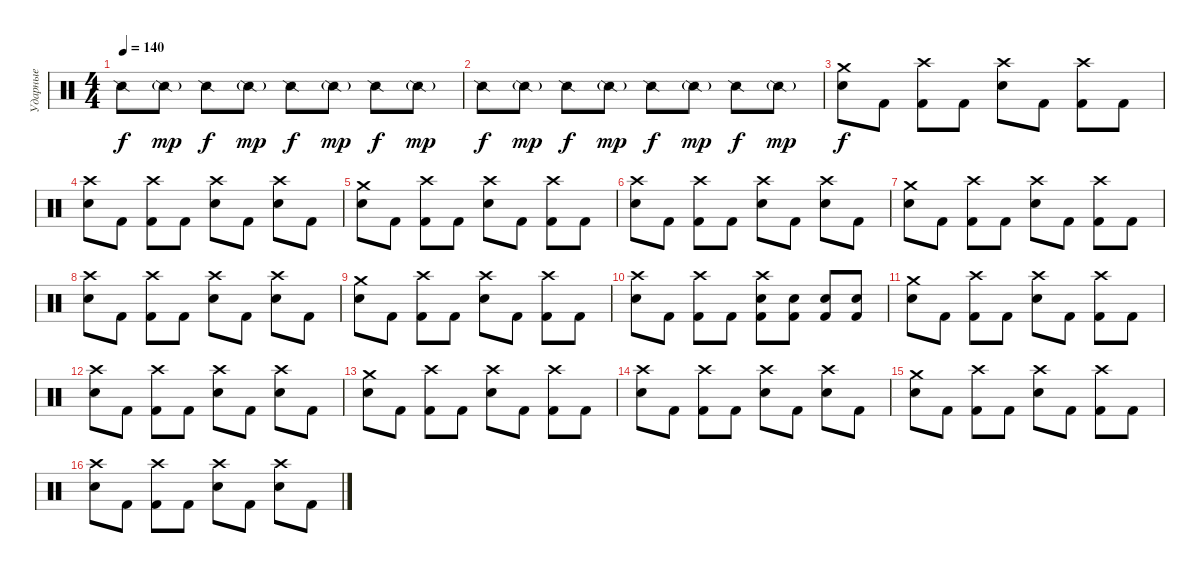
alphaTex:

\track ("Ударные" "Ударные") {instrument percussion}
\staff {score}
\articulation defaults
\ts (4 4)
\tempo 140
\clef neutral
\ks c "Snare (side stick) 2".8{dy f} "Snare (side stick) 2"{g}.8{dy mp} "Snare (side stick) 2".8{dy f} "Snare (side stick) 2"{g}.8{dy mp} "Snare (side stick) 2".8{dy f} "Snare (side stick) 2"{g}.8{dy mp} "Snare (side stick) 2".8{dy f} "Snare (side stick) 2"{g}.8{dy mp}
|
"Snare (side stick) 2".8{dy f} "Snare (side stick) 2"{g}.8{dy mp} "Snare (side stick) 2".8{dy f} "Snare (side stick) 2"{g}.8{dy mp} "Snare (side stick) 2".8{dy f} "Snare (side stick) 2"{g}.8{dy mp} "Snare (side stick) 2".8{dy f} "Snare (side stick) 2"{g}.8{dy mp} |
("Crash medium (hit)" "Electric Snare (hit)").8{dy f} "Kick (hit) 2".8 ("Crash high (hit)" "Kick (hit) 2").8 "Kick (hit) 2".8 ("Crash high (hit)" "Electric Snare (hit)").8 "Kick (hit) 2".8 ("Crash high (hit)" "Kick (hit) 2").8 "Kick (hit) 2".8 |
("Crash high (hit)" "Electric Snare (hit)").8 "Kick (hit) 2".8 ("Crash high (hit)" "Kick (hit) 2").8 "Kick (hit) 2".8 ("Crash high (hit)" "Electric Snare (hit)").8 "Kick (hit) 2".8 ("Crash high (hit)" "Electric Snare (hit)").8 "Kick (hit) 2".8 |
("Crash medium (hit)" "Electric Snare (hit)").8 "Kick (hit) 2".8 ("Crash high (hit)" "Kick (hit) 2").8 "Kick (hit) 2".8 ("Crash high (hit)" "Electric Snare (hit)").8 "Kick (hit) 2".8 ("Crash high (hit)" "Kick (hit) 2").8 "Kick (hit) 2".8 |
("Crash high (hit)" "Electric Snare (hit)").8 "Kick (hit) 2".8 ("Crash high (hit)" "Kick (hit) 2").8 "Kick (hit) 2".8 ("Crash high (hit)" "Electric Snare (hit)").8 "Kick (hit) 2".8 ("Crash high (hit)" "Electric Snare (hit)").8 "Kick (hit) 2".8 |
("Crash medium (hit)" "Electric Snare (hit)").8 "Kick (hit) 2".8 ("Crash high (hit)" "Kick (hit) 2").8 "Kick (hit) 2".8 ("Crash high (hit)" "Electric Snare (hit)").8 "Kick (hit) 2".8 ("Crash high (hit)" "Kick (hit) 2").8 "Kick (hit) 2".8 |
("Crash high (hit)" "Electric Snare (hit)").8 "Kick (hit) 2".8 ("Crash high (hit)" "Kick (hit) 2").8 "Kick (hit) 2".8 ("Crash high (hit)" "Electric Snare (hit)").8 "Kick (hit) 2".8 ("Crash high (hit)" "Electric Snare (hit)").8 "Kick (hit) 2".8 |
("Crash medium (hit)" "Electric Snare (hit)").8 "Kick (hit) 2".8 ("Crash high (hit)" "Kick (hit) 2").8 "Kick (hit) 2".8 ("Crash high (hit)" "Electric Snare (hit)").8 "Kick (hit) 2".8 ("Crash high (hit)" "Kick (hit) 2").8 "Kick (hit) 2".8 |
("Crash high (hit)" "Electric Snare (hit)").8 "Kick (hit) 2".8 ("Crash high (hit)" "Kick (hit) 2").8 "Kick (hit) 2".8 ("Crash high (hit)" "Electric Snare (hit)" "Kick (hit) 2").8 ("Electric Snare (hit)" "Kick (hit) 2").8 ("Electric Snare (hit)" "Kick (hit) 2").8 ("Electric Snare (hit)" "Kick (hit) 2").8 |
("Crash medium (hit)" "Electric Snare (hit)").8 "Kick (hit) 2".8 ("Crash high (hit)" "Kick (hit) 2").8 "Kick (hit) 2".8 ("Crash high (hit)" "Electric Snare (hit)").8 "Kick (hit) 2".8 ("Crash high (hit)" "Kick (hit) 2").8 "Kick (hit) 2".8 |
("Crash high (hit)" "Electric Snare (hit)").8 "Kick (hit) 2".8 ("Crash high (hit)" "Kick (hit) 2").8 "Kick (hit) 2".8 ("Crash high (hit)" "Electric Snare (hit)").8 "Kick (hit) 2".8 ("Crash high (hit)" "Electric Snare (hit)").8 "Kick (hit) 2".8 |
("Crash medium (hit)" "Electric Snare (hit)").8 "Kick (hit) 2".8 ("Crash high (hit)" "Kick (hit) 2").8 "Kick (hit) 2".8 ("Crash high (hit)" "Electric Snare (hit)").8 "Kick (hit) 2".8 ("Crash high (hit)" "Kick (hit) 2").8 "Kick (hit) 2".8 |
("Crash high (hit)" "Electric Snare (hit)").8 "Kick (hit) 2".8 ("Crash high (hit)" "Kick (hit) 2").8 "Kick (hit) 2".8 ("Crash high (hit)" "Electric Snare (hit)").8 "Kick (hit) 2".8 ("Crash high (hit)" "Electric Snare (hit)").8 "Kick (hit) 2".8 |
("Crash medium (hit)" "Electric Snare (hit)").8 "Kick (hit) 2".8 ("Crash high (hit)" "Kick (hit) 2").8 "Kick (hit) 2".8 ("Crash high (hit)" "Electric Snare (hit)").8 "Kick (hit) 2".8 ("Crash high (hit)" "Kick (hit) 2").8 "Kick (hit) 2".8 |
("Crash high (hit)" "Electric Snare (hit)").8 "Kick (hit) 2".8 ("Crash high (hit)" "Kick (hit) 2").8 "Kick (hit) 2".8 ("Crash high (hit)" "Electric Snare (hit)").8 "Kick (hit) 2".8 ("Crash high (hit)" "Electric Snare (hit)").8 "Kick (hit) 2".8
